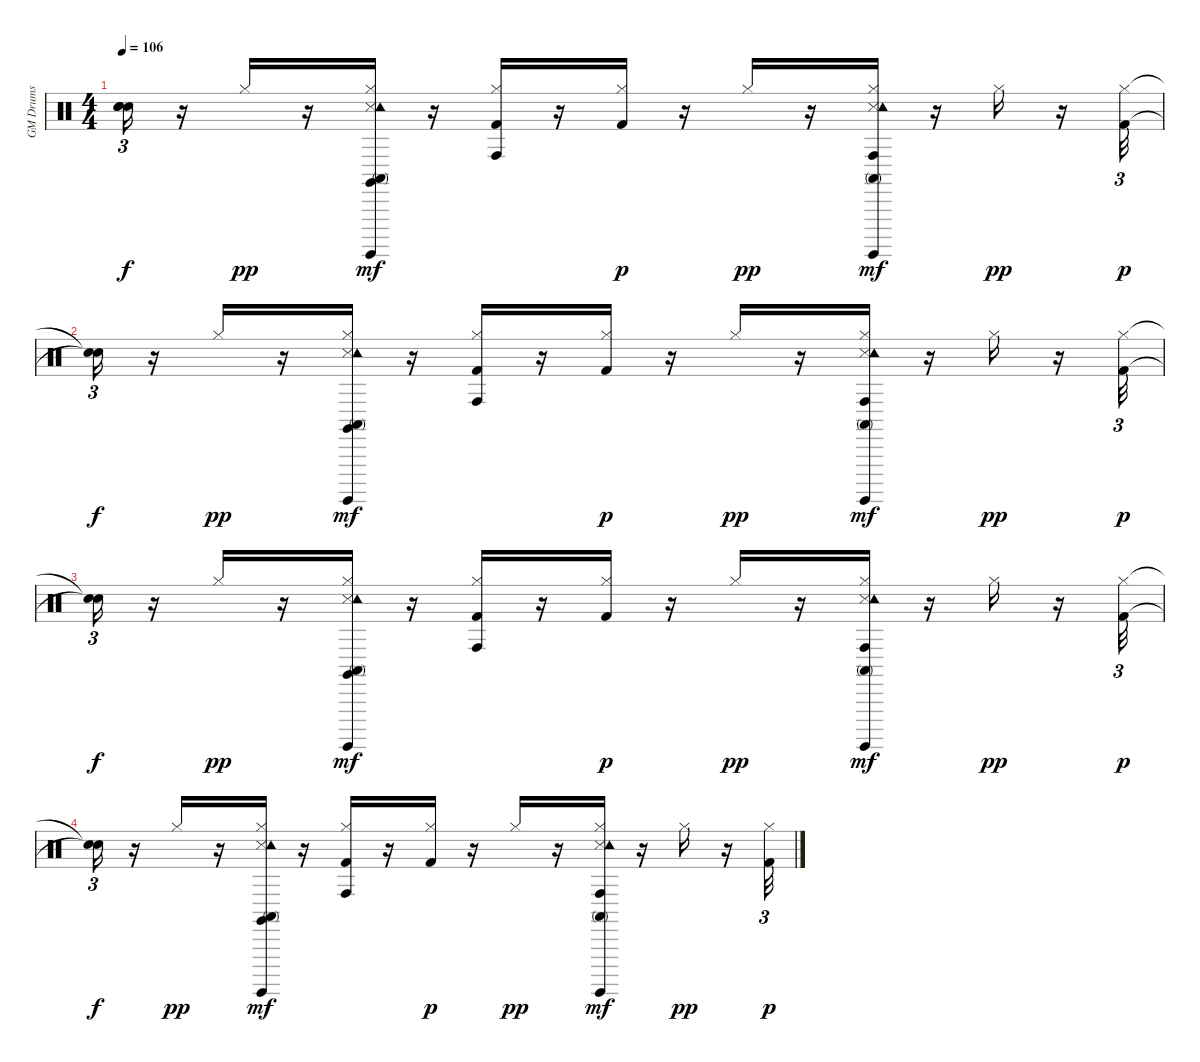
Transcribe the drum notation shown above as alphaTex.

\track ("GM Drums" "GM Drums") {instrument percussion}
\staff {score}
\articulation defaults
\ts (4 4)
\tempo 106
\clef neutral
\ks c
("Snare (hit)"{t} "Snare (hit)"{t} "Snare (hit)"{t}).16{tu (3 2) dy f} r.16 "Hi-Hat (closed)".16{dy pp} r.16 ("Snare (side stick) 3" "Hi-Hat (closed)" "Tambourine (hit)" "Conga high (mute)" "Claves (hit)" "Surdo (hit)").16{dy mf} r.16 ("Kick (hit) 2" "Hi-Hat (closed)" "Conga high (hit)").16 r.16 ("Kick (hit) 2" "Hi-Hat (closed)").16{dy p} r.16 "Hi-Hat (closed)".16{dy pp} r.16 ("Snare (side stick) 3" "Hi-Hat (closed)" "Tambourine (hit)" "Conga high (mute)" "Conga high (hit)" "Surdo (hit)").16{dy mf} r.16 "Hi-Hat (closed)".16{dy pp} r.16 ("Kick (hit) 2" "Hi-Hat (closed)").32{tu (3 2) dy p} |
("Snare (hit)"{t} "Snare (hit)"{t}).16{tu (3 2) dy f} r.16 "Hi-Hat (closed)".16{dy pp} r.16 ("Snare (side stick) 3" "Hi-Hat (closed)" "Tambourine (hit)" "Conga high (mute)" "Claves (hit)" "Surdo (hit)").16{dy mf} r.16 ("Kick (hit) 2" "Hi-Hat (closed)" "Conga high (hit)").16 r.16 ("Kick (hit) 2" "Hi-Hat (closed)").16{dy p} r.16 "Hi-Hat (closed)".16{dy pp} r.16 ("Snare (side stick) 3" "Hi-Hat (closed)" "Tambourine (hit)" "Conga high (mute)" "Conga high (hit)" "Surdo (hit)").16{dy mf} r.16 "Hi-Hat (closed)".16{dy pp} r.16 ("Kick (hit) 2" "Hi-Hat (closed)").32{tu (3 2) dy p} |
("Snare (hit)"{t} "Snare (hit)"{t}).16{tu (3 2) dy f} r.16 "Hi-Hat (closed)".16{dy pp} r.16 ("Snare (side stick) 3" "Hi-Hat (closed)" "Tambourine (hit)" "Conga high (mute)" "Claves (hit)" "Surdo (hit)").16{dy mf} r.16 ("Kick (hit) 2" "Hi-Hat (closed)" "Conga high (hit)").16 r.16 ("Kick (hit) 2" "Hi-Hat (closed)").16{dy p} r.16 "Hi-Hat (closed)".16{dy pp} r.16 ("Snare (side stick) 3" "Hi-Hat (closed)" "Tambourine (hit)" "Conga high (mute)" "Conga high (hit)" "Surdo (hit)").16{dy mf} r.16 "Hi-Hat (closed)".16{dy pp} r.16 ("Kick (hit) 2" "Hi-Hat (closed)").32{tu (3 2) dy p} |
("Snare (hit)"{t} "Snare (hit)"{t}).16{tu (3 2) dy f} r.16 "Hi-Hat (closed)".16{dy pp} r.16 ("Snare (side stick) 3" "Hi-Hat (closed)" "Tambourine (hit)" "Conga high (mute)" "Claves (hit)" "Surdo (hit)").16{dy mf} r.16 ("Kick (hit) 2" "Hi-Hat (closed)" "Conga high (hit)").16 r.16 ("Kick (hit) 2" "Hi-Hat (closed)").16{dy p} r.16 "Hi-Hat (closed)".16{dy pp} r.16 ("Snare (side stick) 3" "Hi-Hat (closed)" "Tambourine (hit)" "Conga high (mute)" "Conga high (hit)" "Surdo (hit)").16{dy mf} r.16 "Hi-Hat (closed)".16{dy pp} r.16 ("Kick (hit) 2" "Hi-Hat (closed)").32{tu (3 2) dy p}
